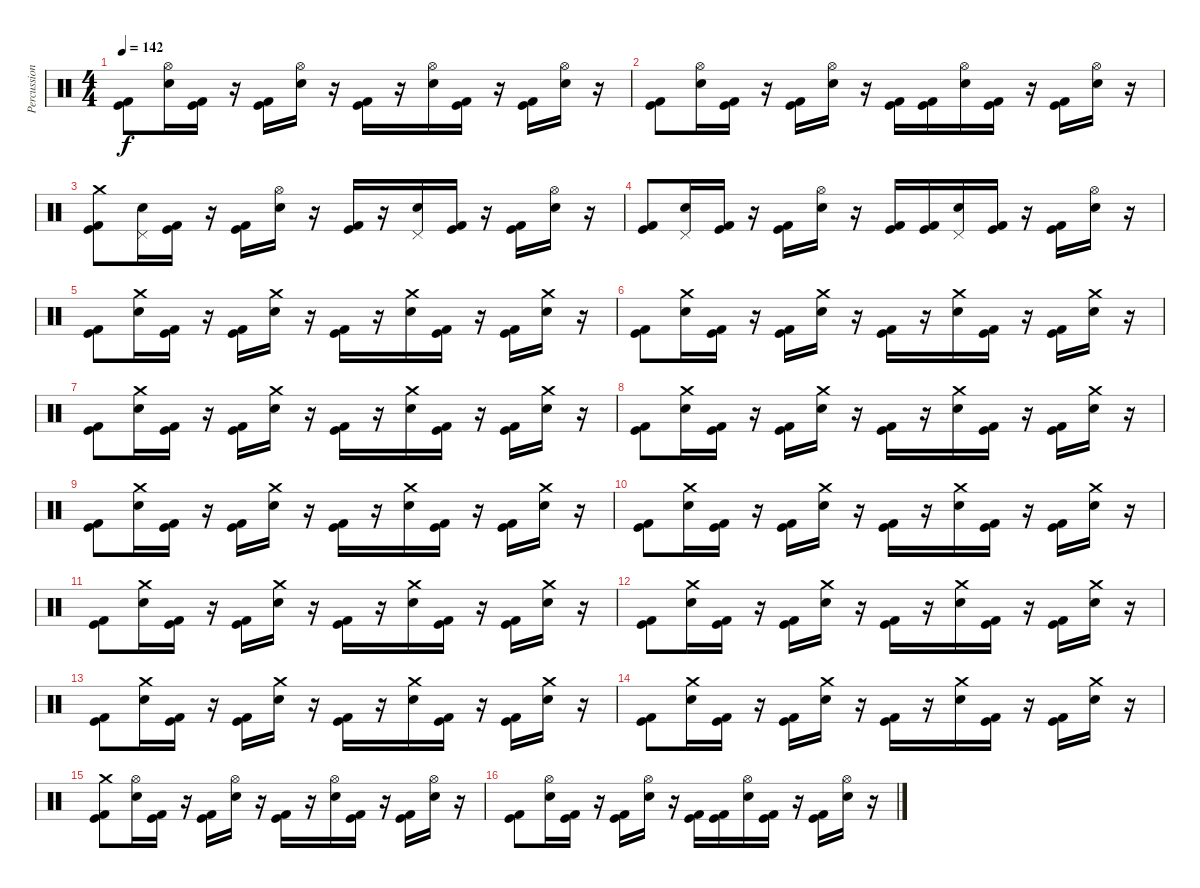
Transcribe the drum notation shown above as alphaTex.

\track ("Percussions" "Percussion") {instrument percussion}
\staff {score}
\articulation defaults
\ts (4 4)
\tempo 142
\clef neutral
\ks c
("Kick (hit)" "Kick (hit) 2").8{dy f} ("Hi-Hat (open)" "Electric Snare (hit)").16 ("Kick (hit)" "Kick (hit) 2").16 r.16 ("Kick (hit)" "Kick (hit) 2").16 ("Hi-Hat (open)" "Electric Snare (hit)").16 r.16 ("Kick (hit)" "Kick (hit) 2").16 r.16 ("Hi-Hat (open)" "Electric Snare (hit)").16 ("Kick (hit)" "Kick (hit) 2").16 r.16 ("Kick (hit)" "Kick (hit) 2").16 ("Hi-Hat (open)" "Electric Snare (hit)").16 r.16 |
("Kick (hit)" "Kick (hit) 2").8 ("Hi-Hat (open)" "Electric Snare (hit)").16 ("Kick (hit)" "Kick (hit) 2").16 r.16 ("Kick (hit)" "Kick (hit) 2").16 ("Hi-Hat (open)" "Electric Snare (hit)").16 r.16 ("Kick (hit)" "Kick (hit) 2").16 ("Kick (hit)" "Kick (hit) 2").16 ("Hi-Hat (open)" "Electric Snare (hit)").16 ("Kick (hit)" "Kick (hit) 2").16 r.16 ("Kick (hit)" "Kick (hit) 2").16 ("Hi-Hat (open)" "Electric Snare (hit)").16 r.16 |
("Crash medium (hit)" "Kick (hit)" "Kick (hit) 2").8 ("Pedal Hi-Hat (hit)" "Electric Snare (hit)").16 ("Kick (hit)" "Kick (hit) 2").16 r.16 ("Kick (hit)" "Kick (hit) 2").16 ("Hi-Hat (open)" "Electric Snare (hit)").16 r.16 ("Kick (hit)" "Kick (hit) 2").16 r.16 ("Pedal Hi-Hat (hit)" "Electric Snare (hit)").16 ("Kick (hit)" "Kick (hit) 2").16 r.16 ("Kick (hit)" "Kick (hit) 2").16 ("Hi-Hat (open)" "Electric Snare (hit)").16 r.16 |
("Kick (hit)" "Kick (hit) 2").8 ("Pedal Hi-Hat (hit)" "Electric Snare (hit)").16 ("Kick (hit)" "Kick (hit) 2").16 r.16 ("Kick (hit)" "Kick (hit) 2").16 ("Hi-Hat (open)" "Electric Snare (hit)").16 r.16 ("Kick (hit)" "Kick (hit) 2").16 ("Kick (hit)" "Kick (hit) 2").16 ("Pedal Hi-Hat (hit)" "Electric Snare (hit)").16 ("Kick (hit)" "Kick (hit) 2").16 r.16 ("Kick (hit)" "Kick (hit) 2").16 ("Hi-Hat (open)" "Electric Snare (hit)").16 r.16 |
("Kick (hit)" "Kick (hit) 2").8 ("Crash medium (hit)" "Electric Snare (hit)").16 ("Kick (hit)" "Kick (hit) 2").16 r.16 ("Kick (hit)" "Kick (hit) 2").16 ("Crash medium (hit)" "Electric Snare (hit)").16 r.16 ("Kick (hit)" "Kick (hit) 2").16 r.16 ("Crash medium (hit)" "Electric Snare (hit)").16 ("Kick (hit)" "Kick (hit) 2").16 r.16 ("Kick (hit)" "Kick (hit) 2").16 ("Crash medium (hit)" "Electric Snare (hit)").16 r.16 |
("Kick (hit)" "Kick (hit) 2").8 ("Crash medium (hit)" "Electric Snare (hit)").16 ("Kick (hit)" "Kick (hit) 2").16 r.16 ("Kick (hit)" "Kick (hit) 2").16 ("Crash medium (hit)" "Electric Snare (hit)").16 r.16 ("Kick (hit)" "Kick (hit) 2").16 r.16 ("Crash medium (hit)" "Electric Snare (hit)").16 ("Kick (hit)" "Kick (hit) 2").16 r.16 ("Kick (hit)" "Kick (hit) 2").16 ("Crash medium (hit)" "Electric Snare (hit)").16 r.16 |
("Kick (hit)" "Kick (hit) 2").8 ("Crash medium (hit)" "Electric Snare (hit)").16 ("Kick (hit)" "Kick (hit) 2").16 r.16 ("Kick (hit)" "Kick (hit) 2").16 ("Crash medium (hit)" "Electric Snare (hit)").16 r.16 ("Kick (hit)" "Kick (hit) 2").16 r.16 ("Crash medium (hit)" "Electric Snare (hit)").16 ("Kick (hit)" "Kick (hit) 2").16 r.16 ("Kick (hit)" "Kick (hit) 2").16 ("Crash medium (hit)" "Electric Snare (hit)").16 r.16 |
("Kick (hit)" "Kick (hit) 2").8 ("Crash medium (hit)" "Electric Snare (hit)").16 ("Kick (hit)" "Kick (hit) 2").16 r.16 ("Kick (hit)" "Kick (hit) 2").16 ("Crash medium (hit)" "Electric Snare (hit)").16 r.16 ("Kick (hit)" "Kick (hit) 2").16 r.16 ("Crash medium (hit)" "Electric Snare (hit)").16 ("Kick (hit)" "Kick (hit) 2").16 r.16 ("Kick (hit)" "Kick (hit) 2").16 ("Crash medium (hit)" "Electric Snare (hit)").16 r.16 |
("Kick (hit)" "Kick (hit) 2").8 ("Crash medium (hit)" "Electric Snare (hit)").16 ("Kick (hit)" "Kick (hit) 2").16 r.16 ("Kick (hit)" "Kick (hit) 2").16 ("Crash medium (hit)" "Electric Snare (hit)").16 r.16 ("Kick (hit)" "Kick (hit) 2").16 r.16 ("Crash medium (hit)" "Electric Snare (hit)").16 ("Kick (hit)" "Kick (hit) 2").16 r.16 ("Kick (hit)" "Kick (hit) 2").16 ("Crash medium (hit)" "Electric Snare (hit)").16 r.16 |
("Kick (hit)" "Kick (hit) 2").8 ("Crash medium (hit)" "Electric Snare (hit)").16 ("Kick (hit)" "Kick (hit) 2").16 r.16 ("Kick (hit)" "Kick (hit) 2").16 ("Crash medium (hit)" "Electric Snare (hit)").16 r.16 ("Kick (hit)" "Kick (hit) 2").16 r.16 ("Crash medium (hit)" "Electric Snare (hit)").16 ("Kick (hit)" "Kick (hit) 2").16 r.16 ("Kick (hit)" "Kick (hit) 2").16 ("Crash medium (hit)" "Electric Snare (hit)").16 r.16 |
("Kick (hit)" "Kick (hit) 2").8 ("Crash medium (hit)" "Electric Snare (hit)").16 ("Kick (hit)" "Kick (hit) 2").16 r.16 ("Kick (hit)" "Kick (hit) 2").16 ("Crash medium (hit)" "Electric Snare (hit)").16 r.16 ("Kick (hit)" "Kick (hit) 2").16 r.16 ("Crash medium (hit)" "Electric Snare (hit)").16 ("Kick (hit)" "Kick (hit) 2").16 r.16 ("Kick (hit)" "Kick (hit) 2").16 ("Crash medium (hit)" "Electric Snare (hit)").16 r.16 |
("Kick (hit)" "Kick (hit) 2").8 ("Crash medium (hit)" "Electric Snare (hit)").16 ("Kick (hit)" "Kick (hit) 2").16 r.16 ("Kick (hit)" "Kick (hit) 2").16 ("Crash medium (hit)" "Electric Snare (hit)").16 r.16 ("Kick (hit)" "Kick (hit) 2").16 r.16 ("Crash medium (hit)" "Electric Snare (hit)").16 ("Kick (hit)" "Kick (hit) 2").16 r.16 ("Kick (hit)" "Kick (hit) 2").16 ("Crash medium (hit)" "Electric Snare (hit)").16 r.16 |
("Kick (hit)" "Kick (hit) 2").8 ("Crash medium (hit)" "Electric Snare (hit)").16 ("Kick (hit)" "Kick (hit) 2").16 r.16 ("Kick (hit)" "Kick (hit) 2").16 ("Crash medium (hit)" "Electric Snare (hit)").16 r.16 ("Kick (hit)" "Kick (hit) 2").16 r.16 ("Crash medium (hit)" "Electric Snare (hit)").16 ("Kick (hit)" "Kick (hit) 2").16 r.16 ("Kick (hit)" "Kick (hit) 2").16 ("Crash medium (hit)" "Electric Snare (hit)").16 r.16 |
("Kick (hit)" "Kick (hit) 2").8 ("Crash medium (hit)" "Electric Snare (hit)").16 ("Kick (hit)" "Kick (hit) 2").16 r.16 ("Kick (hit)" "Kick (hit) 2").16 ("Crash medium (hit)" "Electric Snare (hit)").16 r.16 ("Kick (hit)" "Kick (hit) 2").16 r.16 ("Crash medium (hit)" "Electric Snare (hit)").16 ("Kick (hit)" "Kick (hit) 2").16 r.16 ("Kick (hit)" "Kick (hit) 2").16 ("Crash medium (hit)" "Electric Snare (hit)").16 r.16 |
("Crash medium (hit)" "Kick (hit)" "Kick (hit) 2").8 ("Hi-Hat (open)" "Electric Snare (hit)").16 ("Kick (hit)" "Kick (hit) 2").16 r.16 ("Kick (hit)" "Kick (hit) 2").16 ("Hi-Hat (open)" "Electric Snare (hit)").16 r.16 ("Kick (hit)" "Kick (hit) 2").16 r.16 ("Hi-Hat (open)" "Electric Snare (hit)").16 ("Kick (hit)" "Kick (hit) 2").16 r.16 ("Kick (hit)" "Kick (hit) 2").16 ("Hi-Hat (open)" "Electric Snare (hit)").16 r.16 |
("Kick (hit)" "Kick (hit) 2").8 ("Hi-Hat (open)" "Electric Snare (hit)").16 ("Kick (hit)" "Kick (hit) 2").16 r.16 ("Kick (hit)" "Kick (hit) 2").16 ("Hi-Hat (open)" "Electric Snare (hit)").16 r.16 ("Kick (hit)" "Kick (hit) 2").16 ("Kick (hit)" "Kick (hit) 2").16 ("Hi-Hat (open)" "Electric Snare (hit)").16 ("Kick (hit)" "Kick (hit) 2").16 r.16 ("Kick (hit)" "Kick (hit) 2").16 ("Hi-Hat (open)" "Electric Snare (hit)").16 r.16
